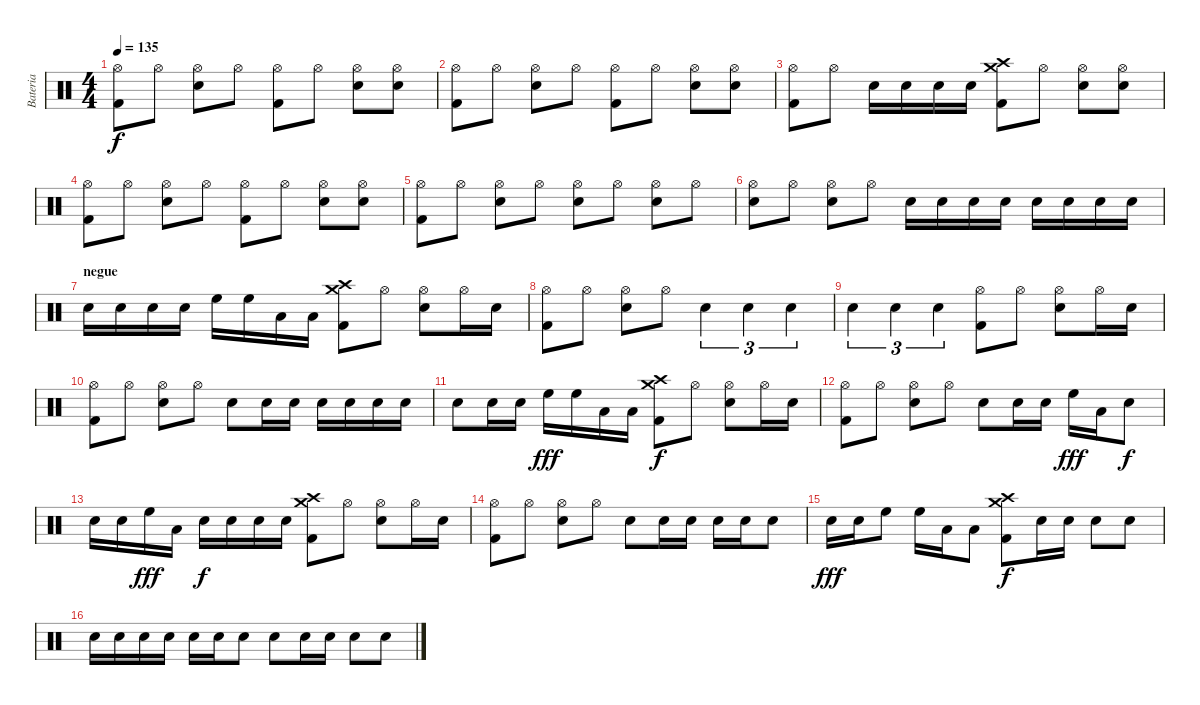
\track ("Bateria" "Bateria") {instrument percussion}
\staff {score}
\articulation defaults
\ts (4 4)
\tempo 135
\clef neutral
\ks c
("Hi-Hat (open)" "Kick (hit) 2").8{dy f} "Hi-Hat (open)".8 ("Hi-Hat (open)" "Electric Snare (hit)").8 "Hi-Hat (open)".8 ("Hi-Hat (open)" "Kick (hit) 2").8 "Hi-Hat (open)".8 ("Hi-Hat (open)" "Electric Snare (hit)").8 ("Hi-Hat (open)" "Electric Snare (hit)").8 |
("Hi-Hat (open)" "Kick (hit) 2").8 "Hi-Hat (open)".8 ("Hi-Hat (open)" "Electric Snare (hit)").8 "Hi-Hat (open)".8 ("Hi-Hat (open)" "Kick (hit) 2").8 "Hi-Hat (open)".8 ("Hi-Hat (open)" "Electric Snare (hit)").8 ("Hi-Hat (open)" "Electric Snare (hit)").8 |
("Hi-Hat (open)" "Kick (hit) 2").8 "Hi-Hat (open)".8 "Electric Snare (hit)".16 "Electric Snare (hit)".16 "Electric Snare (hit)".16 "Electric Snare (hit)".16 ("Crash medium (hit)" "Crash high (hit)" "Kick (hit) 2").8 "Hi-Hat (open)".8 ("Hi-Hat (open)" "Electric Snare (hit)").8 ("Hi-Hat (open)" "Electric Snare (hit)").8 |
("Hi-Hat (open)" "Kick (hit) 2").8 "Hi-Hat (open)".8 ("Hi-Hat (open)" "Electric Snare (hit)").8 "Hi-Hat (open)".8 ("Hi-Hat (open)" "Kick (hit) 2").8 "Hi-Hat (open)".8 ("Hi-Hat (open)" "Electric Snare (hit)").8 ("Hi-Hat (open)" "Electric Snare (hit)").8 |
("Hi-Hat (open)" "Kick (hit) 2").8 "Hi-Hat (open)".8 ("Hi-Hat (open)" "Electric Snare (hit)").8 "Hi-Hat (open)".8 ("Hi-Hat (open)" "Electric Snare (hit)").8 "Hi-Hat (open)".8 ("Hi-Hat (open)" "Electric Snare (hit)").8 "Hi-Hat (open)".8 |
("Hi-Hat (open)" "Electric Snare (hit)").8 "Hi-Hat (open)".8 ("Hi-Hat (open)" "Electric Snare (hit)").8 "Hi-Hat (open)".8 "Electric Snare (hit)".16 "Electric Snare (hit)".16 "Electric Snare (hit)".16 "Electric Snare (hit)".16 "Electric Snare (hit)".16 "Electric Snare (hit)".16 "Electric Snare (hit)".16 "Electric Snare (hit)".16 |
\section ("" "negue")
"Electric Snare (hit)".16 "Electric Snare (hit)".16 "Electric Snare (hit)".16 "Electric Snare (hit)".16 "High Floor Tom (hit)".16 "High Floor Tom (hit)".16 "Low Tom (hit)".16 "Low Tom (hit)".16 ("Crash medium (hit)" "Crash high (hit)" "Kick (hit) 2").8 "Hi-Hat (open)".8 ("Hi-Hat (open)" "Electric Snare (hit)").8 "Hi-Hat (open)".16 "Electric Snare (hit)".16 |
("Hi-Hat (open)" "Kick (hit) 2").8 "Hi-Hat (open)".8 ("Hi-Hat (open)" "Electric Snare (hit)").8 "Hi-Hat (open)".8 "Electric Snare (hit)".4{tu (3 2)} "Electric Snare (hit)".4{tu (3 2)} "Electric Snare (hit)".4{tu (3 2)} |
"Electric Snare (hit)".4{tu (3 2)} "Electric Snare (hit)".4{tu (3 2)} "Electric Snare (hit)".4{tu (3 2)} ("Hi-Hat (open)" "Kick (hit) 2").8 "Hi-Hat (open)".8 ("Hi-Hat (open)" "Electric Snare (hit)").8 "Hi-Hat (open)".16 "Electric Snare (hit)".16 |
("Hi-Hat (open)" "Kick (hit) 2").8 "Hi-Hat (open)".8 ("Hi-Hat (open)" "Electric Snare (hit)").8 "Hi-Hat (open)".8 "Electric Snare (hit)".8 "Electric Snare (hit)".16 "Electric Snare (hit)".16 "Electric Snare (hit)".16 "Electric Snare (hit)".16 "Electric Snare (hit)".16 "Electric Snare (hit)".16 |
"Electric Snare (hit)".8 "Electric Snare (hit)".16 "Electric Snare (hit)".16 "High Floor Tom (hit)".16{dy fff} "High Floor Tom (hit)".16 "Low Tom (hit)".16 "Low Tom (hit)".16 ("Crash medium (hit)" "Crash high (hit)" "Kick (hit) 2").8{dy f} "Hi-Hat (open)".8 ("Hi-Hat (open)" "Electric Snare (hit)").8 "Hi-Hat (open)".16 "Electric Snare (hit)".16 |
("Hi-Hat (open)" "Kick (hit) 2").8 "Hi-Hat (open)".8 ("Hi-Hat (open)" "Electric Snare (hit)").8 "Hi-Hat (open)".8 "Electric Snare (hit)".8 "Electric Snare (hit)".16 "Electric Snare (hit)".16 "High Floor Tom (hit)".16{dy fff} "Low Tom (hit)".16 "Electric Snare (hit)".8{dy f} |
"Electric Snare (hit)".16 "Electric Snare (hit)".16 "High Floor Tom (hit)".16{dy fff} "Low Tom (hit)".16 "Electric Snare (hit)".16{dy f} "Electric Snare (hit)".16 "Electric Snare (hit)".16 "Electric Snare (hit)".16 ("Crash medium (hit)" "Crash high (hit)" "Kick (hit) 2").8 "Hi-Hat (open)".8 ("Hi-Hat (open)" "Electric Snare (hit)").8 "Hi-Hat (open)".16 "Electric Snare (hit)".16 |
("Hi-Hat (open)" "Kick (hit) 2").8 "Hi-Hat (open)".8 ("Hi-Hat (open)" "Electric Snare (hit)").8 "Hi-Hat (open)".8 "Electric Snare (hit)".8 "Electric Snare (hit)".16 "Electric Snare (hit)".16 "Electric Snare (hit)".16 "Electric Snare (hit)".16 "Electric Snare (hit)".8 |
"Electric Snare (hit)".16{dy fff} "Electric Snare (hit)".16 "High Floor Tom (hit)".8 "High Floor Tom (hit)".16 "Low Tom (hit)".16 "Low Tom (hit)".8 ("Crash medium (hit)" "Crash high (hit)" "Kick (hit) 2").8{dy f} "Electric Snare (hit)".16 "Electric Snare (hit)".16 "Electric Snare (hit)".8 "Electric Snare (hit)".8 |
"Electric Snare (hit)".16 "Electric Snare (hit)".16 "Electric Snare (hit)".16 "Electric Snare (hit)".16 "Electric Snare (hit)".16 "Electric Snare (hit)".16 "Electric Snare (hit)".8 "Electric Snare (hit)".8 "Electric Snare (hit)".16 "Electric Snare (hit)".16 "Electric Snare (hit)".8 "Electric Snare (hit)".8
